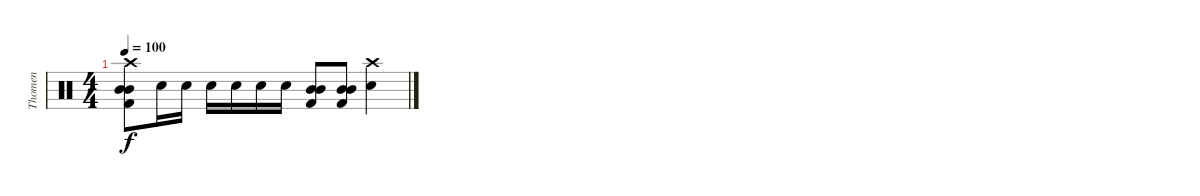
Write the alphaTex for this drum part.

\track ("Thomen" "Thomen") {instrument percussion}
\staff {score}
\articulation defaults
\ts (4 4)
\tempo 100
\clef neutral
\ks c
("Crash high (hit)" "Mid Tom (hit)" "Kick (hit) 2" "Mid Tom (hit)").8{dy f} "Snare (hit) 2".16 "Snare (hit) 2".16 "Snare (hit) 2".16 "Snare (hit) 2".16 "Snare (hit) 2".16 "Snare (hit) 2".16 ("Mid Tom (hit)" "Kick (hit) 2" "Mid Tom (hit)").8 ("Mid Tom (hit)" "Kick (hit) 2" "Mid Tom (hit)").8 ("Crash high (hit)" "Snare (hit) 2").4
